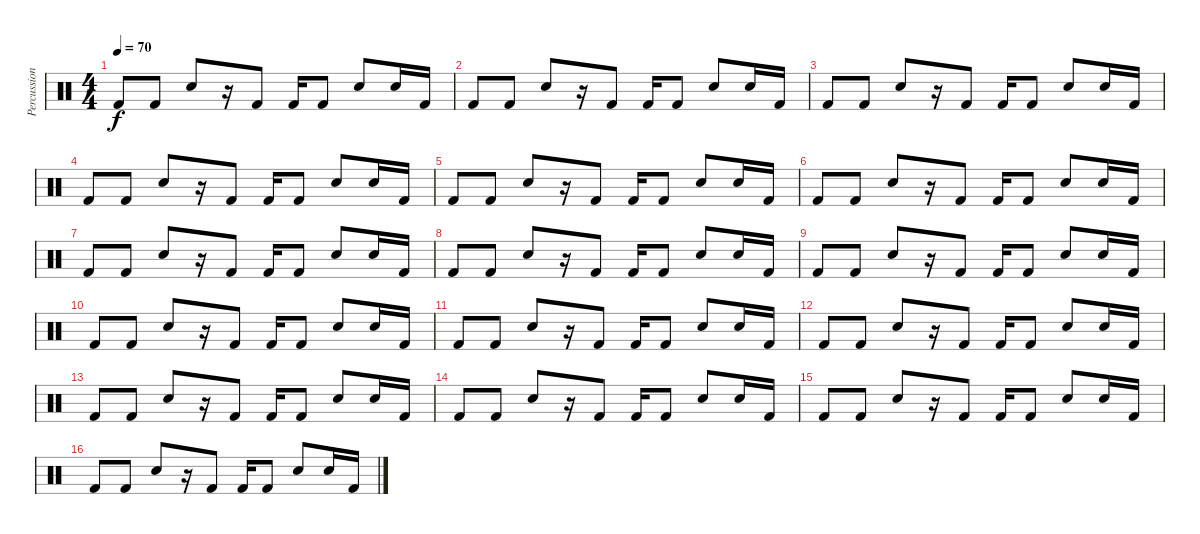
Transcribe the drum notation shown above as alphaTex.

\track ("Percussion 2" "Percussion") {instrument percussion}
\staff {score}
\articulation defaults
\ts (4 4)
\tempo 70
\clef neutral
\ks c "Kick (hit) 2".8{dy f} "Kick (hit) 2".8 "Electric Snare (hit)".8
r.16 "Kick (hit) 2".8 "Kick (hit) 2".16 "Kick (hit) 2".8 "Electric Snare (hit)".8 "Electric Snare (hit)".16 "Kick (hit) 2".16 |
"Kick (hit) 2".8 "Kick (hit) 2".8 "Electric Snare (hit)".8 r.16 "Kick (hit) 2".8 "Kick (hit) 2".16 "Kick (hit) 2".8 "Electric Snare (hit)".8 "Electric Snare (hit)".16 "Kick (hit) 2".16 |
"Kick (hit) 2".8 "Kick (hit) 2".8 "Electric Snare (hit)".8 r.16 "Kick (hit) 2".8 "Kick (hit) 2".16 "Kick (hit) 2".8 "Electric Snare (hit)".8 "Electric Snare (hit)".16 "Kick (hit) 2".16 |
"Kick (hit) 2".8 "Kick (hit) 2".8 "Electric Snare (hit)".8 r.16 "Kick (hit) 2".8 "Kick (hit) 2".16 "Kick (hit) 2".8 "Electric Snare (hit)".8 "Electric Snare (hit)".16 "Kick (hit) 2".16 |
"Kick (hit) 2".8 "Kick (hit) 2".8 "Electric Snare (hit)".8 r.16 "Kick (hit) 2".8 "Kick (hit) 2".16 "Kick (hit) 2".8 "Electric Snare (hit)".8 "Electric Snare (hit)".16 "Kick (hit) 2".16 |
"Kick (hit) 2".8 "Kick (hit) 2".8 "Electric Snare (hit)".8 r.16 "Kick (hit) 2".8 "Kick (hit) 2".16 "Kick (hit) 2".8 "Electric Snare (hit)".8 "Electric Snare (hit)".16 "Kick (hit) 2".16 |
"Kick (hit) 2".8 "Kick (hit) 2".8 "Electric Snare (hit)".8 r.16 "Kick (hit) 2".8 "Kick (hit) 2".16 "Kick (hit) 2".8 "Electric Snare (hit)".8 "Electric Snare (hit)".16 "Kick (hit) 2".16 |
"Kick (hit) 2".8 "Kick (hit) 2".8 "Electric Snare (hit)".8 r.16 "Kick (hit) 2".8 "Kick (hit) 2".16 "Kick (hit) 2".8 "Electric Snare (hit)".8 "Electric Snare (hit)".16 "Kick (hit) 2".16 |
"Kick (hit) 2".8 "Kick (hit) 2".8 "Electric Snare (hit)".8 r.16 "Kick (hit) 2".8 "Kick (hit) 2".16 "Kick (hit) 2".8 "Electric Snare (hit)".8 "Electric Snare (hit)".16 "Kick (hit) 2".16 |
"Kick (hit) 2".8 "Kick (hit) 2".8 "Electric Snare (hit)".8 r.16 "Kick (hit) 2".8 "Kick (hit) 2".16 "Kick (hit) 2".8 "Electric Snare (hit)".8 "Electric Snare (hit)".16 "Kick (hit) 2".16 |
"Kick (hit) 2".8 "Kick (hit) 2".8 "Electric Snare (hit)".8 r.16 "Kick (hit) 2".8 "Kick (hit) 2".16 "Kick (hit) 2".8 "Electric Snare (hit)".8 "Electric Snare (hit)".16 "Kick (hit) 2".16 |
"Kick (hit) 2".8 "Kick (hit) 2".8 "Electric Snare (hit)".8 r.16 "Kick (hit) 2".8 "Kick (hit) 2".16 "Kick (hit) 2".8 "Electric Snare (hit)".8 "Electric Snare (hit)".16 "Kick (hit) 2".16 |
"Kick (hit) 2".8 "Kick (hit) 2".8 "Electric Snare (hit)".8 r.16 "Kick (hit) 2".8 "Kick (hit) 2".16 "Kick (hit) 2".8 "Electric Snare (hit)".8 "Electric Snare (hit)".16 "Kick (hit) 2".16 |
"Kick (hit) 2".8 "Kick (hit) 2".8 "Electric Snare (hit)".8 r.16 "Kick (hit) 2".8 "Kick (hit) 2".16 "Kick (hit) 2".8 "Electric Snare (hit)".8 "Electric Snare (hit)".16 "Kick (hit) 2".16 |
"Kick (hit) 2".8 "Kick (hit) 2".8 "Electric Snare (hit)".8 r.16 "Kick (hit) 2".8 "Kick (hit) 2".16 "Kick (hit) 2".8 "Electric Snare (hit)".8 "Electric Snare (hit)".16 "Kick (hit) 2".16 |
"Kick (hit) 2".8 "Kick (hit) 2".8 "Electric Snare (hit)".8 r.16 "Kick (hit) 2".8 "Kick (hit) 2".16 "Kick (hit) 2".8 "Electric Snare (hit)".8 "Electric Snare (hit)".16 "Kick (hit) 2".16
